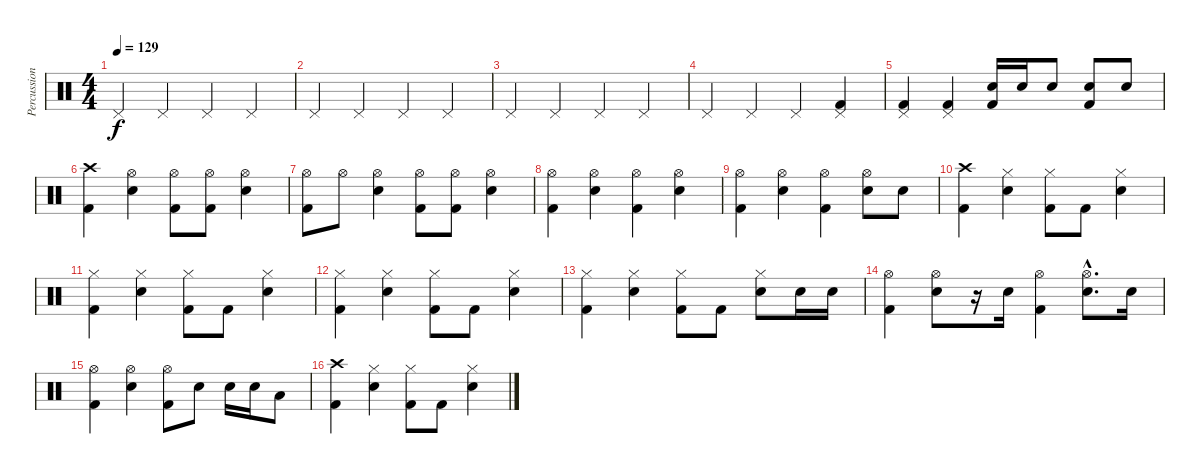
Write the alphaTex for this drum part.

\track ("Percussions" "Percussion") {instrument percussion}
\staff {score}
\articulation defaults
\ts (4 4)
\tempo 129
\clef neutral
\ks c "Pedal Hi-Hat (hit)".4{dy f} "Pedal Hi-Hat (hit)".4 "Pedal Hi-Hat (hit)".4 "Pedal Hi-Hat (hit)".4
|
"Pedal Hi-Hat (hit)".4 "Pedal Hi-Hat (hit)".4 "Pedal Hi-Hat (hit)".4 "Pedal Hi-Hat (hit)".4 |
"Pedal Hi-Hat (hit)".4 "Pedal Hi-Hat (hit)".4 "Pedal Hi-Hat (hit)".4 "Pedal Hi-Hat (hit)".4 |
"Pedal Hi-Hat (hit)".4 "Pedal Hi-Hat (hit)".4 "Pedal Hi-Hat (hit)".4 ("Pedal Hi-Hat (hit)" "Kick (hit) 2").4 |
("Pedal Hi-Hat (hit)" "Kick (hit) 2").4 ("Pedal Hi-Hat (hit)" "Kick (hit) 2").4 ("Electric Snare (hit)" "Kick (hit) 2").16 "Electric Snare (hit)".16 "Electric Snare (hit)".8 ("Electric Snare (hit)" "Kick (hit) 2").8 "Electric Snare (hit)".8 |
("Crash high (hit)" "Kick (hit) 2").4 ("Hi-Hat (open)" "Electric Snare (hit)").4 ("Hi-Hat (open)" "Kick (hit) 2").8 ("Hi-Hat (open)" "Kick (hit) 2").8 ("Hi-Hat (open)" "Electric Snare (hit)").4 |
("Hi-Hat (open)" "Kick (hit) 2").8 "Hi-Hat (open)".8 ("Hi-Hat (open)" "Electric Snare (hit)").4 ("Hi-Hat (open)" "Kick (hit) 2").8 ("Hi-Hat (open)" "Kick (hit) 2").8 ("Hi-Hat (open)" "Electric Snare (hit)").4 |
("Hi-Hat (open)" "Kick (hit) 2").4 ("Hi-Hat (open)" "Electric Snare (hit)").4 ("Hi-Hat (open)" "Kick (hit) 2").4 ("Hi-Hat (open)" "Electric Snare (hit)").4 |
("Hi-Hat (open)" "Kick (hit) 2").4 ("Hi-Hat (open)" "Electric Snare (hit)").4 ("Hi-Hat (open)" "Kick (hit) 2").4 ("Hi-Hat (open)" "Electric Snare (hit)").8 "Electric Snare (hit)".8 |
("Crash high (hit)" "Kick (hit) 2").4 ("Hi-Hat (closed)" "Electric Snare (hit)").4 ("Hi-Hat (closed)" "Kick (hit) 2").8 "Kick (hit) 2".8 ("Hi-Hat (closed)" "Electric Snare (hit)").4 |
("Hi-Hat (closed)" "Kick (hit) 2").4 ("Hi-Hat (closed)" "Electric Snare (hit)").4 ("Hi-Hat (closed)" "Kick (hit) 2").8 "Kick (hit) 2".8 ("Hi-Hat (closed)" "Electric Snare (hit)").4 |
("Hi-Hat (closed)" "Kick (hit) 2").4 ("Hi-Hat (closed)" "Electric Snare (hit)").4 ("Hi-Hat (closed)" "Kick (hit) 2").8 "Kick (hit) 2".8 ("Hi-Hat (closed)" "Electric Snare (hit)").4 |
("Hi-Hat (closed)" "Kick (hit) 2").4 ("Hi-Hat (closed)" "Electric Snare (hit)").4 ("Hi-Hat (closed)" "Kick (hit) 2").8 "Kick (hit) 2".8 ("Hi-Hat (closed)" "Electric Snare (hit)").8 "Electric Snare (hit)".16 "Electric Snare (hit)".16 |
("Hi-Hat (open)" "Kick (hit) 2").4 ("Hi-Hat (open)" "Electric Snare (hit)").8 r.16 "Electric Snare (hit)".16 ("Hi-Hat (open)" "Kick (hit) 2").4 ("Hi-Hat (open)"{hac} "Electric Snare (hit)"{hac}).8{d} "Electric Snare (hit)".16 |
("Hi-Hat (open)" "Kick (hit) 2").4 ("Hi-Hat (open)" "Electric Snare (hit)").4 ("Hi-Hat (open)" "Kick (hit) 2").8 "Electric Snare (hit)".8 "Electric Snare (hit)".16 "Electric Snare (hit)".16 "Low Floor Tom (hit)".8 |
("Crash high (hit)" "Kick (hit) 2").4 ("Hi-Hat (closed)" "Electric Snare (hit)").4 ("Hi-Hat (closed)" "Kick (hit) 2").8 "Kick (hit) 2".8 ("Hi-Hat (closed)" "Electric Snare (hit)").4
